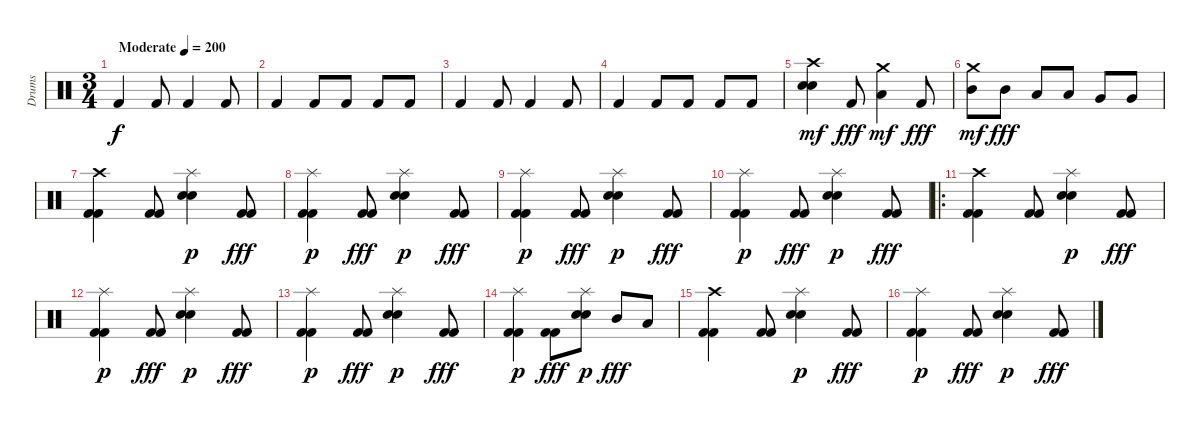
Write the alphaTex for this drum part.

\track ("Drums" "Drums") {instrument percussion bank 41}
\staff
\articulation defaults
\ts (3 4)
\tempo (200 "Moderate")
\clef neutral
\ks c "Kick (hit) 2".4{dy f} "Kick (hit) 2".8 "Kick (hit) 2".4 "Kick (hit) 2".8
|
"Kick (hit) 2".4 "Kick (hit) 2".8 "Kick (hit) 2".8 "Kick (hit) 2".8 "Kick (hit) 2".8 |
"Kick (hit) 2".4 "Kick (hit) 2".8 "Kick (hit) 2".4 "Kick (hit) 2".8 |
"Kick (hit) 2".4 "Kick (hit) 2".8 "Kick (hit) 2".8 "Kick (hit) 2".8 "Kick (hit) 2".8 |
("Snare (hit) 2" "Electric Snare (hit)" "Crash high (hit)").4{dy mf} "Kick (hit) 2".8{dy fff} ("Low Tom (hit)" "Crash medium (hit)").4{dy mf} "Kick (hit) 2".8{dy fff} |
("Mid Tom (hit)" "Crash medium (hit)").8{dy mf} "Mid Tom (hit)".8{dy fff} "Low Tom (hit)".8 "Low Tom (hit)".8 "Very Low Tom (hit)".8 "Very Low Tom (hit)".8 |
("Kick (hit) 2" "Kick (hit) 2" "Crash high (hit)").4 ("Kick (hit) 2" "Kick (hit) 2").8 ("Snare (hit) 2" "Electric Snare (hit)" "Splash (hit)").4{dy p} ("Kick (hit) 2" "Kick (hit) 2").8{dy fff} |
("Kick (hit) 2" "Kick (hit) 2" "Splash (hit)").4{dy p} ("Kick (hit) 2" "Kick (hit) 2").8{dy fff} ("Snare (hit) 2" "Electric Snare (hit)" "Splash (hit)").4{dy p} ("Kick (hit) 2" "Kick (hit) 2").8{dy fff} |
("Kick (hit) 2" "Kick (hit) 2" "Splash (hit)").4{dy p} ("Kick (hit) 2" "Kick (hit) 2").8{dy fff} ("Snare (hit) 2" "Electric Snare (hit)" "Splash (hit)").4{dy p} ("Kick (hit) 2" "Kick (hit) 2").8{dy fff} |
("Kick (hit) 2" "Kick (hit) 2" "Splash (hit)").4{dy p} ("Kick (hit) 2" "Kick (hit) 2").8{dy fff} ("Snare (hit) 2" "Electric Snare (hit)" "Splash (hit)").4{dy p} ("Kick (hit) 2" "Kick (hit) 2").8{dy fff} |
\ro
("Kick (hit) 2" "Kick (hit) 2" "Crash high (hit)").4 ("Kick (hit) 2" "Kick (hit) 2").8 ("Snare (hit) 2" "Electric Snare (hit)" "Splash (hit)").4{dy p} ("Kick (hit) 2" "Kick (hit) 2").8{dy fff} |
("Kick (hit) 2" "Kick (hit) 2" "Splash (hit)").4{dy p} ("Kick (hit) 2" "Kick (hit) 2").8{dy fff} ("Snare (hit) 2" "Electric Snare (hit)" "Splash (hit)").4{dy p} ("Kick (hit) 2" "Kick (hit) 2").8{dy fff} |
("Kick (hit) 2" "Kick (hit) 2" "Splash (hit)").4{dy p} ("Kick (hit) 2" "Kick (hit) 2").8{dy fff} ("Snare (hit) 2" "Electric Snare (hit)" "Splash (hit)").4{dy p} ("Kick (hit) 2" "Kick (hit) 2").8{dy fff} |
("Kick (hit) 2" "Kick (hit) 2" "Splash (hit)").4{dy p} ("Kick (hit) 2" "Kick (hit) 2").8{dy fff} ("Snare (hit) 2" "Electric Snare (hit)" "Splash (hit)").8{dy p} "Mid Tom (hit)".8{dy fff} "Low Tom (hit)".8 |
("Kick (hit) 2" "Kick (hit) 2" "Crash high (hit)").4 ("Kick (hit) 2" "Kick (hit) 2").8 ("Snare (hit) 2" "Electric Snare (hit)" "Splash (hit)").4{dy p} ("Kick (hit) 2" "Kick (hit) 2").8{dy fff} |
("Kick (hit) 2" "Kick (hit) 2" "Splash (hit)").4{dy p} ("Kick (hit) 2" "Kick (hit) 2").8{dy fff} ("Snare (hit) 2" "Electric Snare (hit)" "Splash (hit)").4{dy p} ("Kick (hit) 2" "Kick (hit) 2").8{dy fff}
